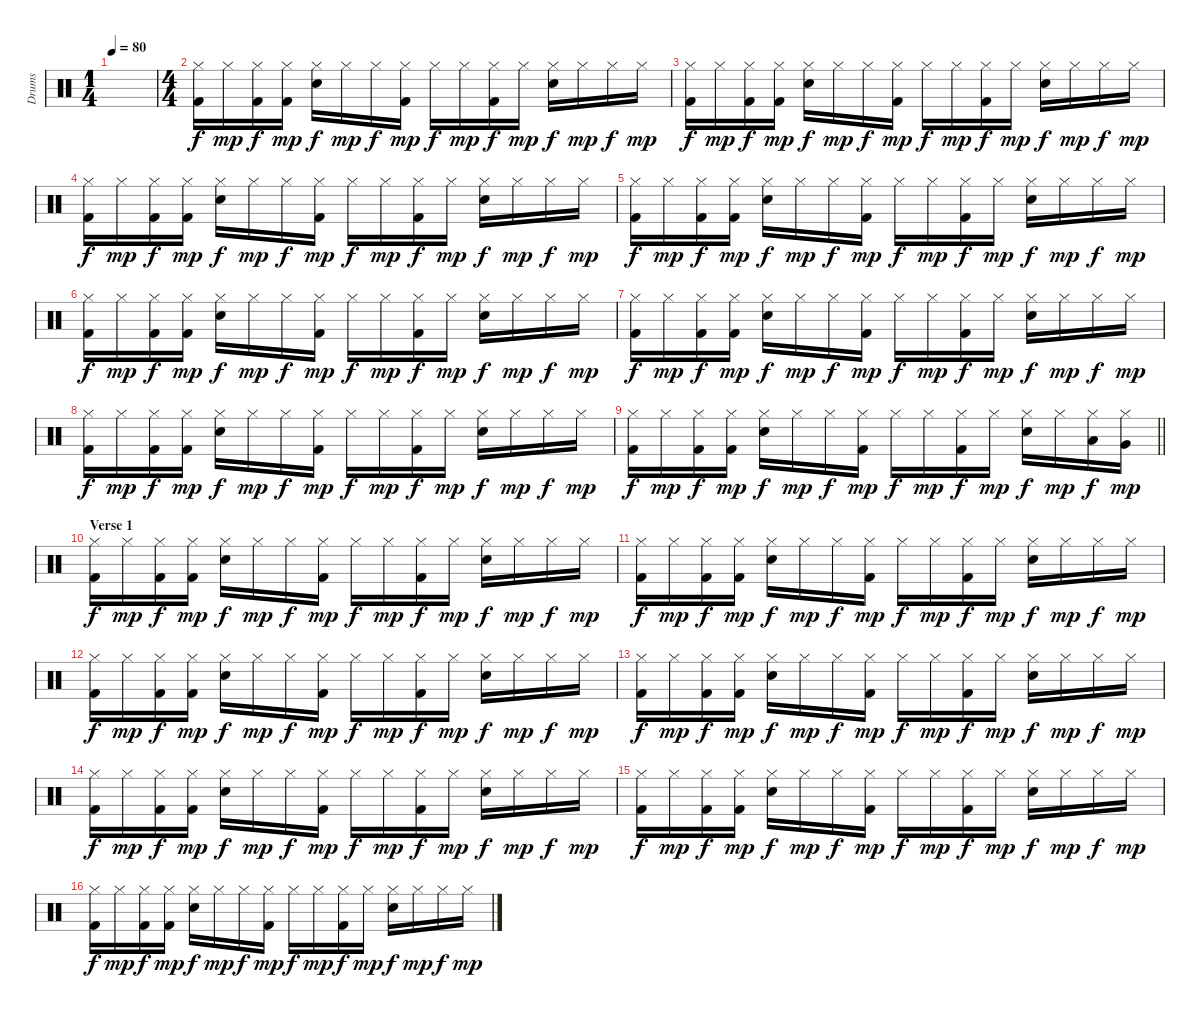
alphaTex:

\track ("Drums" "Drums") {instrument percussion}
\staff {score}
\articulation defaults
\ts (1 4)
\tempo 80
\clef neutral
\ks c
|
\ts (4 4)
("Hi-Hat (closed)" "Kick (hit) 2").16 "Hi-Hat (closed)".16{dy mp} ("Hi-Hat (closed)" "Kick (hit) 2").16{dy f} ("Hi-Hat (closed)" "Kick (hit) 2").16{dy mp} ("Hi-Hat (closed)" "Electric Snare (hit)").16{dy f} "Hi-Hat (closed)".16{dy mp} "Hi-Hat (closed)".16{dy f} ("Hi-Hat (closed)" "Kick (hit) 2").16{dy mp} "Hi-Hat (closed)".16{dy f} "Hi-Hat (closed)".16{dy mp} ("Hi-Hat (closed)" "Kick (hit) 2").16{dy f} "Hi-Hat (closed)".16{dy mp} ("Hi-Hat (closed)" "Electric Snare (hit)").16{dy f} "Hi-Hat (closed)".16{dy mp} "Hi-Hat (closed)".16{dy f} "Hi-Hat (closed)".16{dy mp} |
("Hi-Hat (closed)" "Kick (hit) 2").16{dy f} "Hi-Hat (closed)".16{dy mp} ("Hi-Hat (closed)" "Kick (hit) 2").16{dy f} ("Hi-Hat (closed)" "Kick (hit) 2").16{dy mp} ("Hi-Hat (closed)" "Electric Snare (hit)").16{dy f} "Hi-Hat (closed)".16{dy mp} "Hi-Hat (closed)".16{dy f} ("Hi-Hat (closed)" "Kick (hit) 2").16{dy mp} "Hi-Hat (closed)".16{dy f} "Hi-Hat (closed)".16{dy mp} ("Hi-Hat (closed)" "Kick (hit) 2").16{dy f} "Hi-Hat (closed)".16{dy mp} ("Hi-Hat (closed)" "Electric Snare (hit)").16{dy f} "Hi-Hat (closed)".16{dy mp} "Hi-Hat (closed)".16{dy f} "Hi-Hat (closed)".16{dy mp} |
("Hi-Hat (closed)" "Kick (hit) 2").16{dy f} "Hi-Hat (closed)".16{dy mp} ("Hi-Hat (closed)" "Kick (hit) 2").16{dy f} ("Hi-Hat (closed)" "Kick (hit) 2").16{dy mp} ("Hi-Hat (closed)" "Electric Snare (hit)").16{dy f} "Hi-Hat (closed)".16{dy mp} "Hi-Hat (closed)".16{dy f} ("Hi-Hat (closed)" "Kick (hit) 2").16{dy mp} "Hi-Hat (closed)".16{dy f} "Hi-Hat (closed)".16{dy mp} ("Hi-Hat (closed)" "Kick (hit) 2").16{dy f} "Hi-Hat (closed)".16{dy mp} ("Hi-Hat (closed)" "Electric Snare (hit)").16{dy f} "Hi-Hat (closed)".16{dy mp} "Hi-Hat (closed)".16{dy f} "Hi-Hat (closed)".16{dy mp} |
("Hi-Hat (closed)" "Kick (hit) 2").16{dy f} "Hi-Hat (closed)".16{dy mp} ("Hi-Hat (closed)" "Kick (hit) 2").16{dy f} ("Hi-Hat (closed)" "Kick (hit) 2").16{dy mp} ("Hi-Hat (closed)" "Electric Snare (hit)").16{dy f} "Hi-Hat (closed)".16{dy mp} "Hi-Hat (closed)".16{dy f} ("Hi-Hat (closed)" "Kick (hit) 2").16{dy mp} "Hi-Hat (closed)".16{dy f} "Hi-Hat (closed)".16{dy mp} ("Hi-Hat (closed)" "Kick (hit) 2").16{dy f} "Hi-Hat (closed)".16{dy mp} ("Hi-Hat (closed)" "Electric Snare (hit)").16{dy f} "Hi-Hat (closed)".16{dy mp} "Hi-Hat (closed)".16{dy f} "Hi-Hat (closed)".16{dy mp} |
("Hi-Hat (closed)" "Kick (hit) 2").16{dy f} "Hi-Hat (closed)".16{dy mp} ("Hi-Hat (closed)" "Kick (hit) 2").16{dy f} ("Hi-Hat (closed)" "Kick (hit) 2").16{dy mp} ("Hi-Hat (closed)" "Electric Snare (hit)").16{dy f} "Hi-Hat (closed)".16{dy mp} "Hi-Hat (closed)".16{dy f} ("Hi-Hat (closed)" "Kick (hit) 2").16{dy mp} "Hi-Hat (closed)".16{dy f} "Hi-Hat (closed)".16{dy mp} ("Hi-Hat (closed)" "Kick (hit) 2").16{dy f} "Hi-Hat (closed)".16{dy mp} ("Hi-Hat (closed)" "Electric Snare (hit)").16{dy f} "Hi-Hat (closed)".16{dy mp} "Hi-Hat (closed)".16{dy f} "Hi-Hat (closed)".16{dy mp} |
("Hi-Hat (closed)" "Kick (hit) 2").16{dy f} "Hi-Hat (closed)".16{dy mp} ("Hi-Hat (closed)" "Kick (hit) 2").16{dy f} ("Hi-Hat (closed)" "Kick (hit) 2").16{dy mp} ("Hi-Hat (closed)" "Electric Snare (hit)").16{dy f} "Hi-Hat (closed)".16{dy mp} "Hi-Hat (closed)".16{dy f} ("Hi-Hat (closed)" "Kick (hit) 2").16{dy mp} "Hi-Hat (closed)".16{dy f} "Hi-Hat (closed)".16{dy mp} ("Hi-Hat (closed)" "Kick (hit) 2").16{dy f} "Hi-Hat (closed)".16{dy mp} ("Hi-Hat (closed)" "Electric Snare (hit)").16{dy f} "Hi-Hat (closed)".16{dy mp} "Hi-Hat (closed)".16{dy f} "Hi-Hat (closed)".16{dy mp} |
("Hi-Hat (closed)" "Kick (hit) 2").16{dy f} "Hi-Hat (closed)".16{dy mp} ("Hi-Hat (closed)" "Kick (hit) 2").16{dy f} ("Hi-Hat (closed)" "Kick (hit) 2").16{dy mp} ("Hi-Hat (closed)" "Electric Snare (hit)").16{dy f} "Hi-Hat (closed)".16{dy mp} "Hi-Hat (closed)".16{dy f} ("Hi-Hat (closed)" "Kick (hit) 2").16{dy mp} "Hi-Hat (closed)".16{dy f} "Hi-Hat (closed)".16{dy mp} ("Hi-Hat (closed)" "Kick (hit) 2").16{dy f} "Hi-Hat (closed)".16{dy mp} ("Hi-Hat (closed)" "Electric Snare (hit)").16{dy f} "Hi-Hat (closed)".16{dy mp} "Hi-Hat (closed)".16{dy f} "Hi-Hat (closed)".16{dy mp} |
\barLineRight lightlight
("Hi-Hat (closed)" "Kick (hit) 2").16{dy f} "Hi-Hat (closed)".16{dy mp} ("Hi-Hat (closed)" "Kick (hit) 2").16{dy f} ("Hi-Hat (closed)" "Kick (hit) 2").16{dy mp} ("Hi-Hat (closed)" "Electric Snare (hit)").16{dy f} "Hi-Hat (closed)".16{dy mp} "Hi-Hat (closed)".16{dy f} ("Hi-Hat (closed)" "Kick (hit) 2").16{dy mp} "Hi-Hat (closed)".16{dy f} "Hi-Hat (closed)".16{dy mp} ("Hi-Hat (closed)" "Kick (hit) 2").16{dy f} "Hi-Hat (closed)".16{dy mp} ("Hi-Hat (closed)" "Electric Snare (hit)").16{dy f} "Hi-Hat (closed)".16{dy mp} ("Hi-Hat (closed)" "Low Tom (hit)").16{dy f} ("Hi-Hat (closed)" "Very Low Tom (hit)").16{dy mp} |
\section ("" "Verse 1")
("Hi-Hat (closed)" "Kick (hit) 2").16{dy f} "Hi-Hat (closed)".16{dy mp} ("Hi-Hat (closed)" "Kick (hit) 2").16{dy f} ("Hi-Hat (closed)" "Kick (hit) 2").16{dy mp} ("Hi-Hat (closed)" "Electric Snare (hit)").16{dy f} "Hi-Hat (closed)".16{dy mp} "Hi-Hat (closed)".16{dy f} ("Hi-Hat (closed)" "Kick (hit) 2").16{dy mp} "Hi-Hat (closed)".16{dy f} "Hi-Hat (closed)".16{dy mp} ("Hi-Hat (closed)" "Kick (hit) 2").16{dy f} "Hi-Hat (closed)".16{dy mp} ("Hi-Hat (closed)" "Electric Snare (hit)").16{dy f} "Hi-Hat (closed)".16{dy mp} "Hi-Hat (closed)".16{dy f} "Hi-Hat (closed)".16{dy mp} |
("Hi-Hat (closed)" "Kick (hit) 2").16{dy f} "Hi-Hat (closed)".16{dy mp} ("Hi-Hat (closed)" "Kick (hit) 2").16{dy f} ("Hi-Hat (closed)" "Kick (hit) 2").16{dy mp} ("Hi-Hat (closed)" "Electric Snare (hit)").16{dy f} "Hi-Hat (closed)".16{dy mp} "Hi-Hat (closed)".16{dy f} ("Hi-Hat (closed)" "Kick (hit) 2").16{dy mp} "Hi-Hat (closed)".16{dy f} "Hi-Hat (closed)".16{dy mp} ("Hi-Hat (closed)" "Kick (hit) 2").16{dy f} "Hi-Hat (closed)".16{dy mp} ("Hi-Hat (closed)" "Electric Snare (hit)").16{dy f} "Hi-Hat (closed)".16{dy mp} "Hi-Hat (closed)".16{dy f} "Hi-Hat (closed)".16{dy mp} |
("Hi-Hat (closed)" "Kick (hit) 2").16{dy f} "Hi-Hat (closed)".16{dy mp} ("Hi-Hat (closed)" "Kick (hit) 2").16{dy f} ("Hi-Hat (closed)" "Kick (hit) 2").16{dy mp} ("Hi-Hat (closed)" "Electric Snare (hit)").16{dy f} "Hi-Hat (closed)".16{dy mp} "Hi-Hat (closed)".16{dy f} ("Hi-Hat (closed)" "Kick (hit) 2").16{dy mp} "Hi-Hat (closed)".16{dy f} "Hi-Hat (closed)".16{dy mp} ("Hi-Hat (closed)" "Kick (hit) 2").16{dy f} "Hi-Hat (closed)".16{dy mp} ("Hi-Hat (closed)" "Electric Snare (hit)").16{dy f} "Hi-Hat (closed)".16{dy mp} "Hi-Hat (closed)".16{dy f} "Hi-Hat (closed)".16{dy mp} |
("Hi-Hat (closed)" "Kick (hit) 2").16{dy f} "Hi-Hat (closed)".16{dy mp} ("Hi-Hat (closed)" "Kick (hit) 2").16{dy f} ("Hi-Hat (closed)" "Kick (hit) 2").16{dy mp} ("Hi-Hat (closed)" "Electric Snare (hit)").16{dy f} "Hi-Hat (closed)".16{dy mp} "Hi-Hat (closed)".16{dy f} ("Hi-Hat (closed)" "Kick (hit) 2").16{dy mp} "Hi-Hat (closed)".16{dy f} "Hi-Hat (closed)".16{dy mp} ("Hi-Hat (closed)" "Kick (hit) 2").16{dy f} "Hi-Hat (closed)".16{dy mp} ("Hi-Hat (closed)" "Electric Snare (hit)").16{dy f} "Hi-Hat (closed)".16{dy mp} "Hi-Hat (closed)".16{dy f} "Hi-Hat (closed)".16{dy mp} |
("Hi-Hat (closed)" "Kick (hit) 2").16{dy f} "Hi-Hat (closed)".16{dy mp} ("Hi-Hat (closed)" "Kick (hit) 2").16{dy f} ("Hi-Hat (closed)" "Kick (hit) 2").16{dy mp} ("Hi-Hat (closed)" "Electric Snare (hit)").16{dy f} "Hi-Hat (closed)".16{dy mp} "Hi-Hat (closed)".16{dy f} ("Hi-Hat (closed)" "Kick (hit) 2").16{dy mp} "Hi-Hat (closed)".16{dy f} "Hi-Hat (closed)".16{dy mp} ("Hi-Hat (closed)" "Kick (hit) 2").16{dy f} "Hi-Hat (closed)".16{dy mp} ("Hi-Hat (closed)" "Electric Snare (hit)").16{dy f} "Hi-Hat (closed)".16{dy mp} "Hi-Hat (closed)".16{dy f} "Hi-Hat (closed)".16{dy mp} |
("Hi-Hat (closed)" "Kick (hit) 2").16{dy f} "Hi-Hat (closed)".16{dy mp} ("Hi-Hat (closed)" "Kick (hit) 2").16{dy f} ("Hi-Hat (closed)" "Kick (hit) 2").16{dy mp} ("Hi-Hat (closed)" "Electric Snare (hit)").16{dy f} "Hi-Hat (closed)".16{dy mp} "Hi-Hat (closed)".16{dy f} ("Hi-Hat (closed)" "Kick (hit) 2").16{dy mp} "Hi-Hat (closed)".16{dy f} "Hi-Hat (closed)".16{dy mp} ("Hi-Hat (closed)" "Kick (hit) 2").16{dy f} "Hi-Hat (closed)".16{dy mp} ("Hi-Hat (closed)" "Electric Snare (hit)").16{dy f} "Hi-Hat (closed)".16{dy mp} "Hi-Hat (closed)".16{dy f} "Hi-Hat (closed)".16{dy mp} |
("Hi-Hat (closed)" "Kick (hit) 2").16{dy f} "Hi-Hat (closed)".16{dy mp} ("Hi-Hat (closed)" "Kick (hit) 2").16{dy f} ("Hi-Hat (closed)" "Kick (hit) 2").16{dy mp} ("Hi-Hat (closed)" "Electric Snare (hit)").16{dy f} "Hi-Hat (closed)".16{dy mp} "Hi-Hat (closed)".16{dy f} ("Hi-Hat (closed)" "Kick (hit) 2").16{dy mp} "Hi-Hat (closed)".16{dy f} "Hi-Hat (closed)".16{dy mp} ("Hi-Hat (closed)" "Kick (hit) 2").16{dy f} "Hi-Hat (closed)".16{dy mp} ("Hi-Hat (closed)" "Electric Snare (hit)").16{dy f} "Hi-Hat (closed)".16{dy mp} "Hi-Hat (closed)".16{dy f} "Hi-Hat (closed)".16{dy mp}
